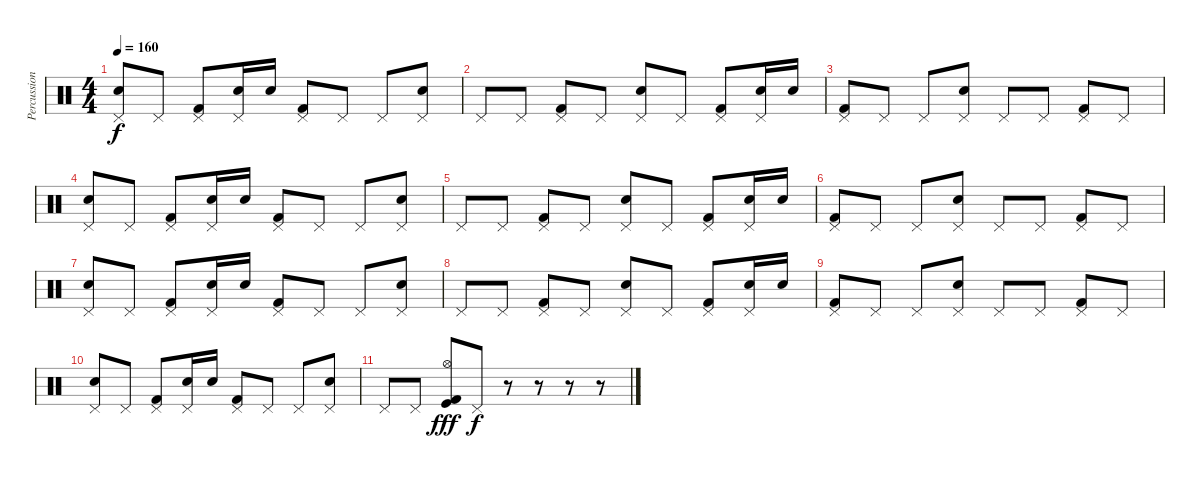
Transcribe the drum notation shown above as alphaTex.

\track ("Percussion" "Percussion") {instrument percussion}
\staff {score}
\articulation defaults
\ts (4 4)
\tempo 160
\clef neutral
\ks c
("Pedal Hi-Hat (hit)" "Electric Snare (hit)").8{dy f} "Pedal Hi-Hat (hit)".8 ("Pedal Hi-Hat (hit)" "Kick (hit) 2").8 ("Pedal Hi-Hat (hit)" "Electric Snare (hit)").16 "Electric Snare (hit)".16 ("Pedal Hi-Hat (hit)" "Kick (hit) 2").8 "Pedal Hi-Hat (hit)".8 "Pedal Hi-Hat (hit)".8 ("Pedal Hi-Hat (hit)" "Electric Snare (hit)").8 |
"Pedal Hi-Hat (hit)".8 "Pedal Hi-Hat (hit)".8 ("Pedal Hi-Hat (hit)" "Kick (hit) 2").8 "Pedal Hi-Hat (hit)".8 ("Pedal Hi-Hat (hit)" "Electric Snare (hit)").8 "Pedal Hi-Hat (hit)".8 ("Pedal Hi-Hat (hit)" "Kick (hit) 2").8 ("Pedal Hi-Hat (hit)" "Electric Snare (hit)").16 "Electric Snare (hit)".16 |
("Pedal Hi-Hat (hit)" "Kick (hit) 2").8 "Pedal Hi-Hat (hit)".8 "Pedal Hi-Hat (hit)".8 ("Pedal Hi-Hat (hit)" "Electric Snare (hit)").8 "Pedal Hi-Hat (hit)".8 "Pedal Hi-Hat (hit)".8 ("Pedal Hi-Hat (hit)" "Kick (hit) 2").8 "Pedal Hi-Hat (hit)".8 |
("Pedal Hi-Hat (hit)" "Electric Snare (hit)").8 "Pedal Hi-Hat (hit)".8 ("Pedal Hi-Hat (hit)" "Kick (hit) 2").8 ("Pedal Hi-Hat (hit)" "Electric Snare (hit)").16 "Electric Snare (hit)".16 ("Pedal Hi-Hat (hit)" "Kick (hit) 2").8 "Pedal Hi-Hat (hit)".8 "Pedal Hi-Hat (hit)".8 ("Pedal Hi-Hat (hit)" "Electric Snare (hit)").8 |
"Pedal Hi-Hat (hit)".8 "Pedal Hi-Hat (hit)".8 ("Pedal Hi-Hat (hit)" "Kick (hit) 2").8 "Pedal Hi-Hat (hit)".8 ("Pedal Hi-Hat (hit)" "Electric Snare (hit)").8 "Pedal Hi-Hat (hit)".8 ("Pedal Hi-Hat (hit)" "Kick (hit) 2").8 ("Pedal Hi-Hat (hit)" "Electric Snare (hit)").16 "Electric Snare (hit)".16 |
("Pedal Hi-Hat (hit)" "Kick (hit) 2").8 "Pedal Hi-Hat (hit)".8 "Pedal Hi-Hat (hit)".8 ("Pedal Hi-Hat (hit)" "Electric Snare (hit)").8 "Pedal Hi-Hat (hit)".8 "Pedal Hi-Hat (hit)".8 ("Pedal Hi-Hat (hit)" "Kick (hit) 2").8 "Pedal Hi-Hat (hit)".8 |
("Pedal Hi-Hat (hit)" "Electric Snare (hit)").8 "Pedal Hi-Hat (hit)".8 ("Pedal Hi-Hat (hit)" "Kick (hit) 2").8 ("Pedal Hi-Hat (hit)" "Electric Snare (hit)").16 "Electric Snare (hit)".16 ("Pedal Hi-Hat (hit)" "Kick (hit) 2").8 "Pedal Hi-Hat (hit)".8 "Pedal Hi-Hat (hit)".8 ("Pedal Hi-Hat (hit)" "Electric Snare (hit)").8 |
"Pedal Hi-Hat (hit)".8 "Pedal Hi-Hat (hit)".8 ("Pedal Hi-Hat (hit)" "Kick (hit) 2").8 "Pedal Hi-Hat (hit)".8 ("Pedal Hi-Hat (hit)" "Electric Snare (hit)").8 "Pedal Hi-Hat (hit)".8 ("Pedal Hi-Hat (hit)" "Kick (hit) 2").8 ("Pedal Hi-Hat (hit)" "Electric Snare (hit)").16 "Electric Snare (hit)".16 |
("Pedal Hi-Hat (hit)" "Kick (hit) 2").8 "Pedal Hi-Hat (hit)".8 "Pedal Hi-Hat (hit)".8 ("Pedal Hi-Hat (hit)" "Electric Snare (hit)").8 "Pedal Hi-Hat (hit)".8 "Pedal Hi-Hat (hit)".8 ("Pedal Hi-Hat (hit)" "Kick (hit) 2").8 "Pedal Hi-Hat (hit)".8 |
("Pedal Hi-Hat (hit)" "Electric Snare (hit)").8 "Pedal Hi-Hat (hit)".8 ("Pedal Hi-Hat (hit)" "Kick (hit) 2").8 ("Pedal Hi-Hat (hit)" "Electric Snare (hit)").16 "Electric Snare (hit)".16 ("Pedal Hi-Hat (hit)" "Kick (hit) 2").8 "Pedal Hi-Hat (hit)".8 "Pedal Hi-Hat (hit)".8 ("Pedal Hi-Hat (hit)" "Electric Snare (hit)").8 |
"Pedal Hi-Hat (hit)".8 "Pedal Hi-Hat (hit)".8 ("Hi-Hat (open)" "Kick (hit)" "Kick (hit) 2").8{dy fff} "Pedal Hi-Hat (hit)".8{dy f} r.8 r.8 r.8 r.8
